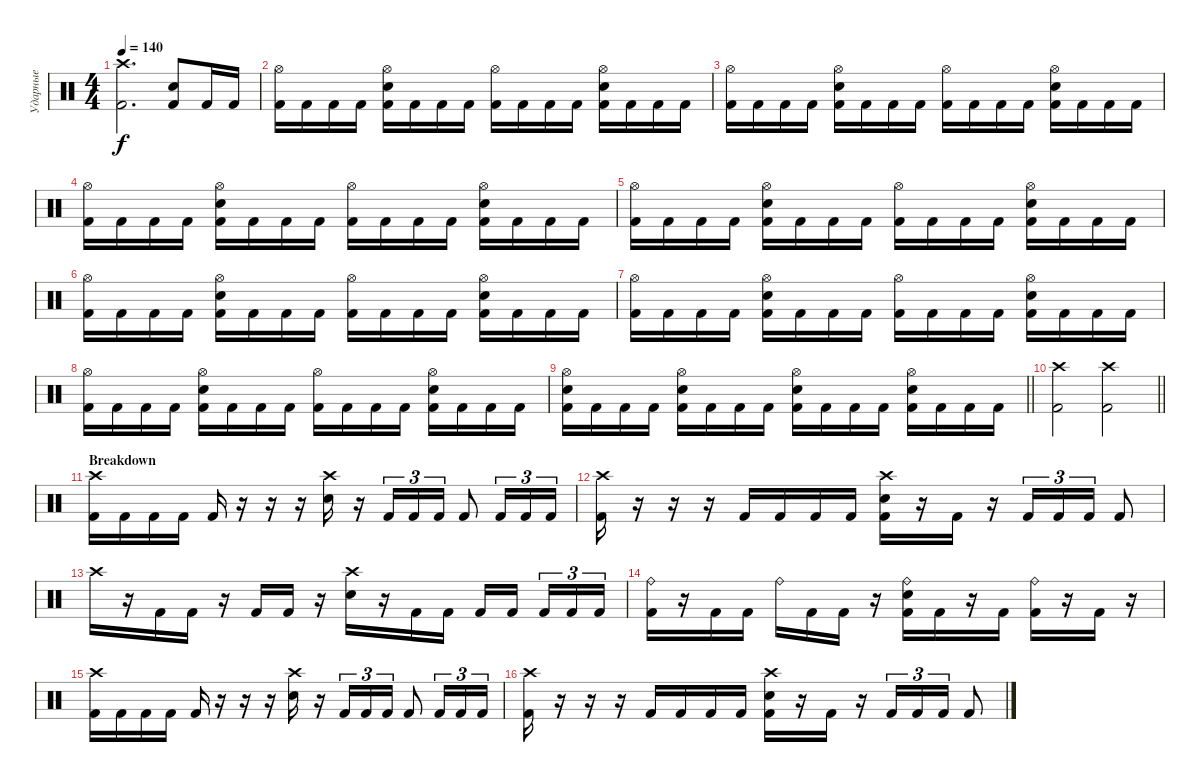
\track ("Ударные" "Ударные") {instrument percussion}
\staff {score}
\articulation defaults
\ts (4 4)
\tempo 140
\clef neutral
\ks c
("Crash high (hit)" "Kick (hit) 2").2{d dy f} ("Electric Snare (hit)" "Kick (hit) 2").8 "Kick (hit) 2".16 "Kick (hit) 2".16 |
("Hi-Hat (open)" "Kick (hit) 2").16 "Kick (hit) 2".16 "Kick (hit) 2".16 "Kick (hit) 2".16 ("Hi-Hat (open)" "Electric Snare (hit)" "Kick (hit) 2").16 "Kick (hit) 2".16 "Kick (hit) 2".16 "Kick (hit) 2".16 ("Hi-Hat (open)" "Kick (hit) 2").16 "Kick (hit) 2".16 "Kick (hit) 2".16 "Kick (hit) 2".16 ("Hi-Hat (open)" "Electric Snare (hit)" "Kick (hit) 2").16 "Kick (hit) 2".16 "Kick (hit) 2".16 "Kick (hit) 2".16 |
("Hi-Hat (open)" "Kick (hit) 2").16 "Kick (hit) 2".16 "Kick (hit) 2".16 "Kick (hit) 2".16 ("Hi-Hat (open)" "Electric Snare (hit)" "Kick (hit) 2").16 "Kick (hit) 2".16 "Kick (hit) 2".16 "Kick (hit) 2".16 ("Hi-Hat (open)" "Kick (hit) 2").16 "Kick (hit) 2".16 "Kick (hit) 2".16 "Kick (hit) 2".16 ("Hi-Hat (open)" "Electric Snare (hit)" "Kick (hit) 2").16 "Kick (hit) 2".16 "Kick (hit) 2".16 "Kick (hit) 2".16 |
("Hi-Hat (open)" "Kick (hit) 2").16 "Kick (hit) 2".16 "Kick (hit) 2".16 "Kick (hit) 2".16 ("Hi-Hat (open)" "Electric Snare (hit)" "Kick (hit) 2").16 "Kick (hit) 2".16 "Kick (hit) 2".16 "Kick (hit) 2".16 ("Hi-Hat (open)" "Kick (hit) 2").16 "Kick (hit) 2".16 "Kick (hit) 2".16 "Kick (hit) 2".16 ("Hi-Hat (open)" "Electric Snare (hit)" "Kick (hit) 2").16 "Kick (hit) 2".16 "Kick (hit) 2".16 "Kick (hit) 2".16 |
("Hi-Hat (open)" "Kick (hit) 2").16 "Kick (hit) 2".16 "Kick (hit) 2".16 "Kick (hit) 2".16 ("Hi-Hat (open)" "Electric Snare (hit)" "Kick (hit) 2").16 "Kick (hit) 2".16 "Kick (hit) 2".16 "Kick (hit) 2".16 ("Hi-Hat (open)" "Kick (hit) 2").16 "Kick (hit) 2".16 "Kick (hit) 2".16 "Kick (hit) 2".16 ("Hi-Hat (open)" "Electric Snare (hit)" "Kick (hit) 2").16 "Kick (hit) 2".16 "Kick (hit) 2".16 "Kick (hit) 2".16 |
("Hi-Hat (open)" "Kick (hit) 2").16 "Kick (hit) 2".16 "Kick (hit) 2".16 "Kick (hit) 2".16 ("Hi-Hat (open)" "Electric Snare (hit)" "Kick (hit) 2").16 "Kick (hit) 2".16 "Kick (hit) 2".16 "Kick (hit) 2".16 ("Hi-Hat (open)" "Kick (hit) 2").16 "Kick (hit) 2".16 "Kick (hit) 2".16 "Kick (hit) 2".16 ("Hi-Hat (open)" "Electric Snare (hit)" "Kick (hit) 2").16 "Kick (hit) 2".16 "Kick (hit) 2".16 "Kick (hit) 2".16 |
("Hi-Hat (open)" "Kick (hit) 2").16 "Kick (hit) 2".16 "Kick (hit) 2".16 "Kick (hit) 2".16 ("Hi-Hat (open)" "Electric Snare (hit)" "Kick (hit) 2").16 "Kick (hit) 2".16 "Kick (hit) 2".16 "Kick (hit) 2".16 ("Hi-Hat (open)" "Kick (hit) 2").16 "Kick (hit) 2".16 "Kick (hit) 2".16 "Kick (hit) 2".16 ("Hi-Hat (open)" "Electric Snare (hit)" "Kick (hit) 2").16 "Kick (hit) 2".16 "Kick (hit) 2".16 "Kick (hit) 2".16 |
("Hi-Hat (open)" "Kick (hit) 2").16 "Kick (hit) 2".16 "Kick (hit) 2".16 "Kick (hit) 2".16 ("Hi-Hat (open)" "Electric Snare (hit)" "Kick (hit) 2").16 "Kick (hit) 2".16 "Kick (hit) 2".16 "Kick (hit) 2".16 ("Hi-Hat (open)" "Kick (hit) 2").16 "Kick (hit) 2".16 "Kick (hit) 2".16 "Kick (hit) 2".16 ("Hi-Hat (open)" "Electric Snare (hit)" "Kick (hit) 2").16 "Kick (hit) 2".16 "Kick (hit) 2".16 "Kick (hit) 2".16 |
\barLineRight lightlight
("Hi-Hat (open)" "Electric Snare (hit)" "Kick (hit) 2").16 "Kick (hit) 2".16 "Kick (hit) 2".16 "Kick (hit) 2".16 ("Hi-Hat (open)" "Electric Snare (hit)" "Kick (hit) 2").16 "Kick (hit) 2".16 "Kick (hit) 2".16 "Kick (hit) 2".16 ("Hi-Hat (open)" "Electric Snare (hit)" "Kick (hit) 2").16 "Kick (hit) 2".16 "Kick (hit) 2".16 "Kick (hit) 2".16 ("Hi-Hat (open)" "Electric Snare (hit)" "Kick (hit) 2").16 "Kick (hit) 2".16 "Kick (hit) 2".16 "Kick (hit) 2".16 |
\barLineRight lightlight
("Crash high (hit)" "Kick (hit) 2").2 ("Crash high (hit)" "Kick (hit) 2").2 |
\section ("" "Breakdown")
("Crash high (hit)" "Kick (hit) 2").16 "Kick (hit) 2".16 "Kick (hit) 2".16 "Kick (hit) 2".16 "Kick (hit) 2".16 r.16 r.16 r.16 ("Crash high (hit)" "Electric Snare (hit)").16 r.16 "Kick (hit) 2".16{tu (3 2)} "Kick (hit) 2".16{tu (3 2)} "Kick (hit) 2".16{tu (3 2)} "Kick (hit) 2".8 "Kick (hit) 2".16{tu (3 2)} "Kick (hit) 2".16{tu (3 2)} "Kick (hit) 2".16{tu (3 2)} |
("Crash high (hit)" "Kick (hit) 2").16 r.16 r.16 r.16 "Kick (hit) 2".16 "Kick (hit) 2".16 "Kick (hit) 2".16 "Kick (hit) 2".16 ("Crash high (hit)" "Electric Snare (hit)" "Kick (hit) 2").16 r.16 "Kick (hit) 2".16 r.16 "Kick (hit) 2".16{tu (3 2)} "Kick (hit) 2".16{tu (3 2)} "Kick (hit) 2".16{tu (3 2)} "Kick (hit) 2".8 |
"Crash high (hit)".16 r.16 "Kick (hit) 2".16 "Kick (hit) 2".16 r.16 "Kick (hit) 2".16 "Kick (hit) 2".16 r.16 ("Crash high (hit)" "Electric Snare (hit)").16 r.16 "Kick (hit) 2".16 "Kick (hit) 2".16 "Kick (hit) 2".16 "Kick (hit) 2".16{beam splitsecondary} "Kick (hit) 2".16{tu (3 2)} "Kick (hit) 2".16{tu (3 2)} "Kick (hit) 2".16{tu (3 2)} |
("Ride (bell)" "Kick (hit) 2").16 r.16 "Kick (hit) 2".16 "Kick (hit) 2".16 "Ride (bell)".16 "Kick (hit) 2".16 "Kick (hit) 2".16 r.16 ("Ride (bell)" "Electric Snare (hit)" "Kick (hit) 2").16 "Kick (hit) 2".16 r.16 "Kick (hit) 2".16 ("Ride (bell)" "Kick (hit) 2").16 r.16 "Kick (hit) 2".16 r.16 |
("Crash high (hit)" "Kick (hit) 2").16 "Kick (hit) 2".16 "Kick (hit) 2".16 "Kick (hit) 2".16 "Kick (hit) 2".16 r.16 r.16 r.16 ("Crash high (hit)" "Electric Snare (hit)").16 r.16 "Kick (hit) 2".16{tu (3 2)} "Kick (hit) 2".16{tu (3 2)} "Kick (hit) 2".16{tu (3 2)} "Kick (hit) 2".8 "Kick (hit) 2".16{tu (3 2)} "Kick (hit) 2".16{tu (3 2)} "Kick (hit) 2".16{tu (3 2)} |
("Crash high (hit)" "Kick (hit) 2").16 r.16 r.16 r.16 "Kick (hit) 2".16 "Kick (hit) 2".16 "Kick (hit) 2".16 "Kick (hit) 2".16 ("Crash high (hit)" "Electric Snare (hit)" "Kick (hit) 2").16 r.16 "Kick (hit) 2".16 r.16 "Kick (hit) 2".16{tu (3 2)} "Kick (hit) 2".16{tu (3 2)} "Kick (hit) 2".16{tu (3 2)} "Kick (hit) 2".8
